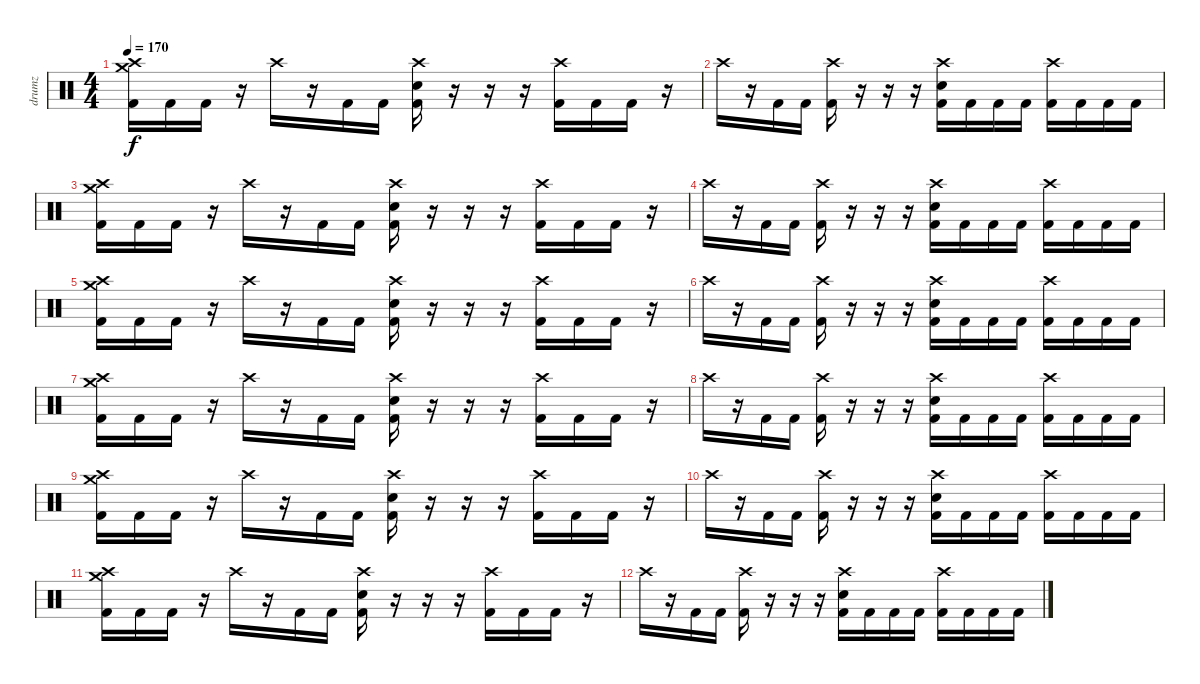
\track ("drumz" "drumz") {instrument percussion}
\staff {score}
\articulation defaults
\ts (4 4)
\tempo 170
\clef neutral
\ks c
("Crash high (hit)" "Crash medium (hit)" "Kick (hit) 2").16{dy f} "Kick (hit) 2".16 "Kick (hit) 2".16 r.16 "Crash high (hit)".16 r.16 "Kick (hit) 2".16 "Kick (hit) 2".16 ("Crash high (hit)" "Electric Snare (hit)" "Kick (hit) 2").16 r.16 r.16 r.16 ("Crash high (hit)" "Kick (hit) 2").16 "Kick (hit) 2".16 "Kick (hit) 2".16 r.16 |
"Crash high (hit)".16 r.16 "Kick (hit) 2".16 "Kick (hit) 2".16 ("Crash high (hit)" "Kick (hit) 2").16 r.16 r.16 r.16 ("Crash high (hit)" "Electric Snare (hit)" "Kick (hit) 2").16 "Kick (hit) 2".16 "Kick (hit) 2".16 "Kick (hit) 2".16 ("Crash high (hit)" "Kick (hit) 2").16 "Kick (hit) 2".16 "Kick (hit) 2".16 "Kick (hit) 2".16 |
("Crash high (hit)" "Crash medium (hit)" "Kick (hit) 2").16 "Kick (hit) 2".16 "Kick (hit) 2".16 r.16 "Crash high (hit)".16 r.16 "Kick (hit) 2".16 "Kick (hit) 2".16 ("Crash high (hit)" "Electric Snare (hit)" "Kick (hit) 2").16 r.16 r.16 r.16 ("Crash high (hit)" "Kick (hit) 2").16 "Kick (hit) 2".16 "Kick (hit) 2".16 r.16 |
"Crash high (hit)".16 r.16 "Kick (hit) 2".16 "Kick (hit) 2".16 ("Crash high (hit)" "Kick (hit) 2").16 r.16 r.16 r.16 ("Crash high (hit)" "Electric Snare (hit)" "Kick (hit) 2").16 "Kick (hit) 2".16 "Kick (hit) 2".16 "Kick (hit) 2".16 ("Crash high (hit)" "Kick (hit) 2").16 "Kick (hit) 2".16 "Kick (hit) 2".16 "Kick (hit) 2".16 |
("Crash high (hit)" "Crash medium (hit)" "Kick (hit) 2").16 "Kick (hit) 2".16 "Kick (hit) 2".16 r.16 "Crash high (hit)".16 r.16 "Kick (hit) 2".16 "Kick (hit) 2".16 ("Crash high (hit)" "Electric Snare (hit)" "Kick (hit) 2").16 r.16 r.16 r.16 ("Crash high (hit)" "Kick (hit) 2").16 "Kick (hit) 2".16 "Kick (hit) 2".16 r.16 |
"Crash high (hit)".16 r.16 "Kick (hit) 2".16 "Kick (hit) 2".16 ("Crash high (hit)" "Kick (hit) 2").16 r.16 r.16 r.16 ("Crash high (hit)" "Electric Snare (hit)" "Kick (hit) 2").16 "Kick (hit) 2".16 "Kick (hit) 2".16 "Kick (hit) 2".16 ("Crash high (hit)" "Kick (hit) 2").16 "Kick (hit) 2".16 "Kick (hit) 2".16 "Kick (hit) 2".16 |
("Crash high (hit)" "Crash medium (hit)" "Kick (hit) 2").16 "Kick (hit) 2".16 "Kick (hit) 2".16 r.16 "Crash high (hit)".16 r.16 "Kick (hit) 2".16 "Kick (hit) 2".16 ("Crash high (hit)" "Electric Snare (hit)" "Kick (hit) 2").16 r.16 r.16 r.16 ("Crash high (hit)" "Kick (hit) 2").16 "Kick (hit) 2".16 "Kick (hit) 2".16 r.16 |
"Crash high (hit)".16 r.16 "Kick (hit) 2".16 "Kick (hit) 2".16 ("Crash high (hit)" "Kick (hit) 2").16 r.16 r.16 r.16 ("Crash high (hit)" "Electric Snare (hit)" "Kick (hit) 2").16 "Kick (hit) 2".16 "Kick (hit) 2".16 "Kick (hit) 2".16 ("Crash high (hit)" "Kick (hit) 2").16 "Kick (hit) 2".16 "Kick (hit) 2".16 "Kick (hit) 2".16 |
("Crash high (hit)" "Crash medium (hit)" "Kick (hit) 2").16 "Kick (hit) 2".16 "Kick (hit) 2".16 r.16 "Crash high (hit)".16 r.16 "Kick (hit) 2".16 "Kick (hit) 2".16 ("Crash high (hit)" "Electric Snare (hit)" "Kick (hit) 2").16 r.16 r.16 r.16 ("Crash high (hit)" "Kick (hit) 2").16 "Kick (hit) 2".16 "Kick (hit) 2".16 r.16 |
"Crash high (hit)".16 r.16 "Kick (hit) 2".16 "Kick (hit) 2".16 ("Crash high (hit)" "Kick (hit) 2").16 r.16 r.16 r.16 ("Crash high (hit)" "Electric Snare (hit)" "Kick (hit) 2").16 "Kick (hit) 2".16 "Kick (hit) 2".16 "Kick (hit) 2".16 ("Crash high (hit)" "Kick (hit) 2").16 "Kick (hit) 2".16 "Kick (hit) 2".16 "Kick (hit) 2".16 |
("Crash high (hit)" "Crash medium (hit)" "Kick (hit) 2").16 "Kick (hit) 2".16 "Kick (hit) 2".16 r.16 "Crash high (hit)".16 r.16 "Kick (hit) 2".16 "Kick (hit) 2".16 ("Crash high (hit)" "Electric Snare (hit)" "Kick (hit) 2").16 r.16 r.16 r.16 ("Crash high (hit)" "Kick (hit) 2").16 "Kick (hit) 2".16 "Kick (hit) 2".16 r.16 |
"Crash high (hit)".16 r.16 "Kick (hit) 2".16 "Kick (hit) 2".16 ("Crash high (hit)" "Kick (hit) 2").16 r.16 r.16 r.16 ("Crash high (hit)" "Electric Snare (hit)" "Kick (hit) 2").16 "Kick (hit) 2".16 "Kick (hit) 2".16 "Kick (hit) 2".16 ("Crash high (hit)" "Kick (hit) 2").16 "Kick (hit) 2".16 "Kick (hit) 2".16 "Kick (hit) 2".16
